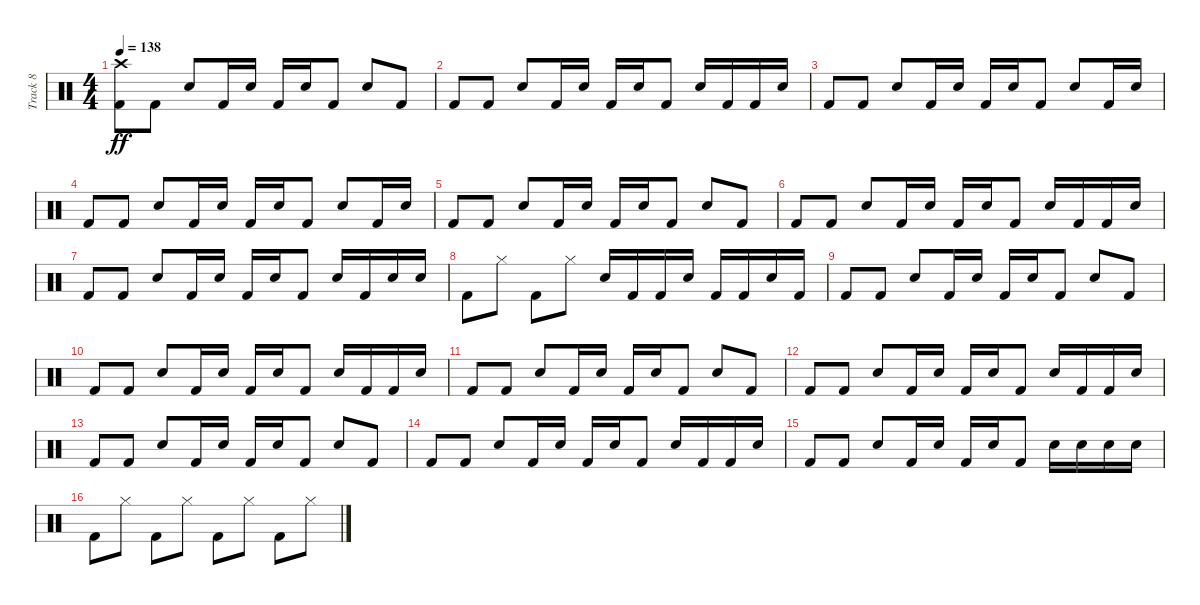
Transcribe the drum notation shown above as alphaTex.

\track ("Track 8" "Track 8") {instrument percussion}
\staff {score}
\articulation defaults
\ts (4 4)
\tempo 138
\clef neutral
\ks c
("Kick (hit) 2" "Crash high (hit)").8{dy ff} "Kick (hit) 2".8 "Snare (hit) 2".8 "Kick (hit) 2".16 "Snare (hit) 2".16 "Kick (hit) 2".16 "Snare (hit) 2".16 "Kick (hit) 2".8 "Snare (hit) 2".8 "Kick (hit) 2".8 |
"Kick (hit) 2".8 "Kick (hit) 2".8 "Snare (hit) 2".8 "Kick (hit) 2".16 "Snare (hit) 2".16 "Kick (hit) 2".16 "Snare (hit) 2".16 "Kick (hit) 2".8 "Snare (hit) 2".16 "Kick (hit) 2".16 "Kick (hit) 2".16 "Snare (hit) 2".16 |
"Kick (hit) 2".8 "Kick (hit) 2".8 "Snare (hit) 2".8 "Kick (hit) 2".16 "Snare (hit) 2".16 "Kick (hit) 2".16 "Snare (hit) 2".16 "Kick (hit) 2".8 "Snare (hit) 2".8 "Kick (hit) 2".16 "Snare (hit) 2".16 |
"Kick (hit) 2".8 "Kick (hit) 2".8 "Snare (hit) 2".8 "Kick (hit) 2".16 "Snare (hit) 2".16 "Kick (hit) 2".16 "Snare (hit) 2".16 "Kick (hit) 2".8 "Snare (hit) 2".8 "Kick (hit) 2".16 "Snare (hit) 2".16 |
"Kick (hit) 2".8 "Kick (hit) 2".8 "Snare (hit) 2".8 "Kick (hit) 2".16 "Snare (hit) 2".16 "Kick (hit) 2".16 "Snare (hit) 2".16 "Kick (hit) 2".8 "Snare (hit) 2".8 "Kick (hit) 2".8 |
"Kick (hit) 2".8 "Kick (hit) 2".8 "Snare (hit) 2".8 "Kick (hit) 2".16 "Snare (hit) 2".16 "Kick (hit) 2".16 "Snare (hit) 2".16 "Kick (hit) 2".8 "Snare (hit) 2".16 "Kick (hit) 2".16 "Kick (hit) 2".16 "Snare (hit) 2".16 |
"Kick (hit) 2".8 "Kick (hit) 2".8 "Snare (hit) 2".8 "Kick (hit) 2".16 "Snare (hit) 2".16 "Kick (hit) 2".16 "Snare (hit) 2".16 "Kick (hit) 2".8 "Snare (hit) 2".16 "Kick (hit) 2".16 "Snare (hit) 2".16 "Snare (hit) 2".16 |
"Kick (hit) 2".8 "Hi-Hat (closed)".8 "Kick (hit) 2".8 "Hi-Hat (closed)".8 "Snare (hit) 2".16 "Kick (hit) 2".16 "Kick (hit) 2".16 "Snare (hit) 2".16 "Kick (hit) 2".16 "Kick (hit) 2".16 "Snare (hit) 2".16 "Kick (hit) 2".16 |
"Kick (hit) 2".8 "Kick (hit) 2".8 "Snare (hit) 2".8 "Kick (hit) 2".16 "Snare (hit) 2".16 "Kick (hit) 2".16 "Snare (hit) 2".16 "Kick (hit) 2".8 "Snare (hit) 2".8 "Kick (hit) 2".8 |
"Kick (hit) 2".8 "Kick (hit) 2".8 "Snare (hit) 2".8 "Kick (hit) 2".16 "Snare (hit) 2".16 "Kick (hit) 2".16 "Snare (hit) 2".16 "Kick (hit) 2".8 "Snare (hit) 2".16 "Kick (hit) 2".16 "Kick (hit) 2".16 "Snare (hit) 2".16 |
"Kick (hit) 2".8 "Kick (hit) 2".8 "Snare (hit) 2".8 "Kick (hit) 2".16 "Snare (hit) 2".16 "Kick (hit) 2".16 "Snare (hit) 2".16 "Kick (hit) 2".8 "Snare (hit) 2".8 "Kick (hit) 2".8 |
"Kick (hit) 2".8 "Kick (hit) 2".8 "Snare (hit) 2".8 "Kick (hit) 2".16 "Snare (hit) 2".16 "Kick (hit) 2".16 "Snare (hit) 2".16 "Kick (hit) 2".8 "Snare (hit) 2".16 "Kick (hit) 2".16 "Kick (hit) 2".16 "Snare (hit) 2".16 |
"Kick (hit) 2".8 "Kick (hit) 2".8 "Snare (hit) 2".8 "Kick (hit) 2".16 "Snare (hit) 2".16 "Kick (hit) 2".16 "Snare (hit) 2".16 "Kick (hit) 2".8 "Snare (hit) 2".8 "Kick (hit) 2".8 |
"Kick (hit) 2".8 "Kick (hit) 2".8 "Snare (hit) 2".8 "Kick (hit) 2".16 "Snare (hit) 2".16 "Kick (hit) 2".16 "Snare (hit) 2".16 "Kick (hit) 2".8 "Snare (hit) 2".16 "Kick (hit) 2".16 "Kick (hit) 2".16 "Snare (hit) 2".16 |
"Kick (hit) 2".8 "Kick (hit) 2".8 "Snare (hit) 2".8 "Kick (hit) 2".16 "Snare (hit) 2".16 "Kick (hit) 2".16 "Snare (hit) 2".16 "Kick (hit) 2".8 "Snare (hit) 2".16 "Snare (hit) 2".16 "Snare (hit) 2".16 "Snare (hit) 2".16 |
"Kick (hit) 2".8 "Hi-Hat (closed)".8 "Kick (hit) 2".8 "Hi-Hat (closed)".8 "Kick (hit) 2".8 "Hi-Hat (closed)".8 "Kick (hit) 2".8 "Hi-Hat (closed)".8
